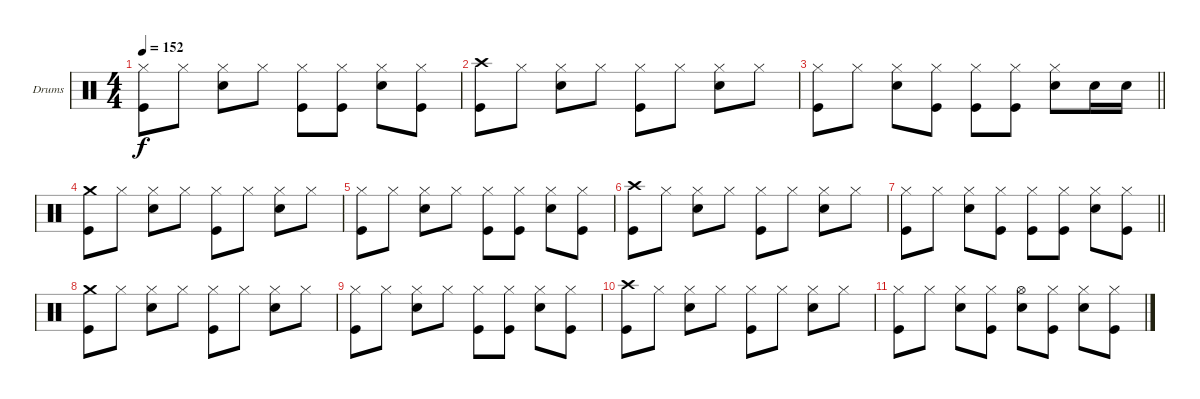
\bracketExtendMode groupsimilarinstruments
\firstSystemTrackNameOrientation horizontal
\otherSystemsTrackNameOrientation horizontal
\track ("Drumkit" "Drums") {instrument percussion}
\staff {score}
\articulation defaults
\ts (4 4)
\tempo 152
\clef neutral
\ks c
("Hi-Hat (closed)" "Kick (hit)").8{dy f} "Hi-Hat (closed)".8 ("Hi-Hat (closed)" "Snare (hit) 2").8 "Hi-Hat (closed)".8 ("Hi-Hat (closed)" "Kick (hit)").8 ("Hi-Hat (closed)" "Kick (hit)").8 ("Hi-Hat (closed)" "Snare (hit) 2").8 ("Hi-Hat (closed)" "Kick (hit)").8 |
("Crash high (hit)" "Kick (hit)").8 "Hi-Hat (closed)".8 ("Hi-Hat (closed)" "Snare (hit) 2").8 "Hi-Hat (closed)".8 ("Hi-Hat (closed)" "Kick (hit)").8 "Hi-Hat (closed)".8 ("Hi-Hat (closed)" "Snare (hit) 2").8 "Hi-Hat (closed)".8 |
\barLineRight lightlight
("Hi-Hat (closed)" "Kick (hit)").8 "Hi-Hat (closed)".8 ("Hi-Hat (closed)" "Snare (hit) 2").8 ("Hi-Hat (closed)" "Kick (hit)").8 ("Hi-Hat (closed)" "Kick (hit)").8 ("Hi-Hat (closed)" "Kick (hit)").8 ("Hi-Hat (closed)" "Snare (hit) 2").8 "Snare (hit) 2".16 "Snare (hit) 2".16 |
("Crash medium (hit)" "Kick (hit)").8 "Hi-Hat (closed)".8 ("Hi-Hat (closed)" "Snare (hit) 2").8 "Hi-Hat (closed)".8 ("Hi-Hat (closed)" "Kick (hit)").8 "Hi-Hat (closed)".8 ("Hi-Hat (closed)" "Snare (hit) 2").8 "Hi-Hat (closed)".8 |
("Hi-Hat (closed)" "Kick (hit)").8 "Hi-Hat (closed)".8 ("Hi-Hat (closed)" "Snare (hit) 2").8 "Hi-Hat (closed)".8 ("Hi-Hat (closed)" "Kick (hit)").8 ("Hi-Hat (closed)" "Kick (hit)").8 ("Hi-Hat (closed)" "Snare (hit) 2").8 ("Hi-Hat (closed)" "Kick (hit)").8 |
("Crash high (hit)" "Kick (hit)").8 "Hi-Hat (closed)".8 ("Hi-Hat (closed)" "Snare (hit) 2").8 "Hi-Hat (closed)".8 ("Hi-Hat (closed)" "Kick (hit)").8 "Hi-Hat (closed)".8 ("Hi-Hat (closed)" "Snare (hit) 2").8 "Hi-Hat (closed)".8 |
\barLineRight lightlight
("Hi-Hat (closed)" "Kick (hit)").8 "Hi-Hat (closed)".8 ("Hi-Hat (closed)" "Snare (hit) 2").8 ("Hi-Hat (closed)" "Kick (hit)").8 ("Hi-Hat (closed)" "Kick (hit)").8 ("Hi-Hat (closed)" "Kick (hit)").8 ("Hi-Hat (closed)" "Snare (hit) 2").8 ("Hi-Hat (closed)" "Kick (hit)").8 |
("Crash medium (hit)" "Kick (hit)").8 "Hi-Hat (closed)".8 ("Hi-Hat (closed)" "Snare (hit) 2").8 "Hi-Hat (closed)".8 ("Hi-Hat (closed)" "Kick (hit)").8 "Hi-Hat (closed)".8 ("Hi-Hat (closed)" "Snare (hit) 2").8 "Hi-Hat (closed)".8 |
("Hi-Hat (closed)" "Kick (hit)").8 "Hi-Hat (closed)".8 ("Hi-Hat (closed)" "Snare (hit) 2").8 "Hi-Hat (closed)".8 ("Hi-Hat (closed)" "Kick (hit)").8 ("Hi-Hat (closed)" "Kick (hit)").8 ("Hi-Hat (closed)" "Snare (hit) 2").8 ("Hi-Hat (closed)" "Kick (hit)").8 |
("Crash high (hit)" "Kick (hit)").8 "Hi-Hat (closed)".8 ("Hi-Hat (closed)" "Snare (hit) 2").8 "Hi-Hat (closed)".8 ("Hi-Hat (closed)" "Kick (hit)").8 "Hi-Hat (closed)".8 ("Hi-Hat (closed)" "Snare (hit) 2").8 "Hi-Hat (closed)".8 |
("Hi-Hat (closed)" "Kick (hit)").8 "Hi-Hat (closed)".8 ("Hi-Hat (closed)" "Snare (hit) 2").8 ("Hi-Hat (closed)" "Kick (hit)").8 ("Hi-Hat (open)" "Snare (hit) 2").8 ("Hi-Hat (closed)" "Kick (hit)").8 ("Hi-Hat (closed)" "Snare (hit) 2").8 ("Hi-Hat (closed)" "Kick (hit)").8
